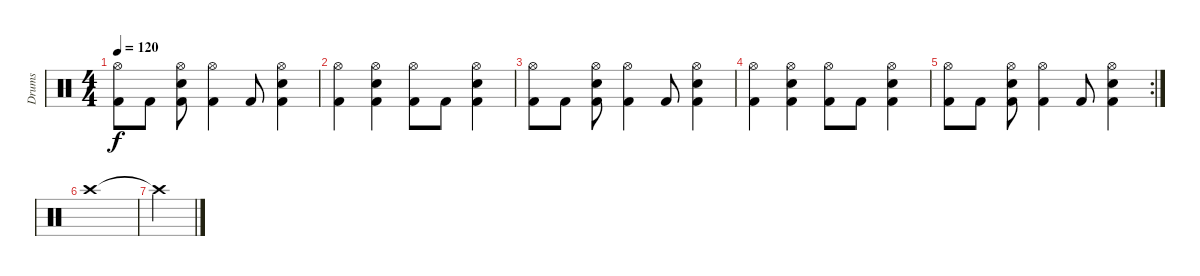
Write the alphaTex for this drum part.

\track ("Drums" "Drums") {instrument percussion}
\staff {score}
\articulation defaults
\ts (4 4)
\tempo 120
\clef neutral
\ks c
("Hi-Hat (open)" "Kick (hit) 2").8{dy f} "Kick (hit) 2".8 ("Hi-Hat (open)" "Electric Snare (hit)" "Kick (hit) 2").8 ("Hi-Hat (open)" "Kick (hit) 2").4 "Kick (hit) 2".8 ("Hi-Hat (open)" "Electric Snare (hit)" "Kick (hit) 2").4 |
("Hi-Hat (open)" "Kick (hit) 2").4 ("Hi-Hat (open)" "Electric Snare (hit)" "Kick (hit) 2").4 ("Hi-Hat (open)" "Kick (hit) 2").8 "Kick (hit) 2".8 ("Hi-Hat (open)" "Electric Snare (hit)" "Kick (hit) 2").4 |
("Hi-Hat (open)" "Kick (hit) 2").8 "Kick (hit) 2".8 ("Hi-Hat (open)" "Electric Snare (hit)" "Kick (hit) 2").8 ("Hi-Hat (open)" "Kick (hit) 2").4 "Kick (hit) 2".8 ("Hi-Hat (open)" "Electric Snare (hit)" "Kick (hit) 2").4 |
("Hi-Hat (open)" "Kick (hit) 2").4 ("Hi-Hat (open)" "Electric Snare (hit)" "Kick (hit) 2").4 ("Hi-Hat (open)" "Kick (hit) 2").8 "Kick (hit) 2".8 ("Hi-Hat (open)" "Electric Snare (hit)" "Kick (hit) 2").4 |
\rc 2
("Hi-Hat (open)" "Kick (hit) 2").8 "Kick (hit) 2".8 ("Hi-Hat (open)" "Electric Snare (hit)" "Kick (hit) 2").8 ("Hi-Hat (open)" "Kick (hit) 2").4 "Kick (hit) 2".8 ("Hi-Hat (open)" "Electric Snare (hit)" "Kick (hit) 2").4 |
"Crash high (hit)".1 |
"Crash high (hit)"{t}.4
